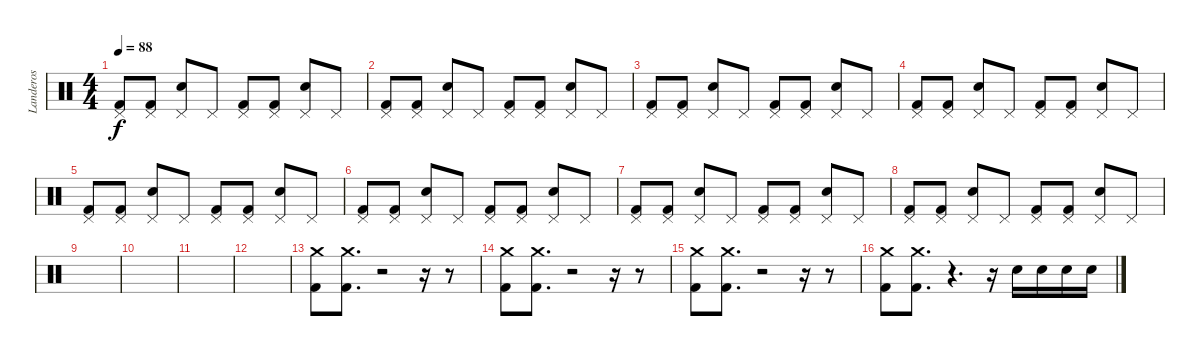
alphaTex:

\track ("Landeros" "Landeros") {instrument percussion}
\staff {score}
\articulation defaults
\ts (4 4)
\tempo 88
\clef neutral
\ks c
("Kick (hit) 2" "Pedal Hi-Hat (hit)").8{dy f} ("Kick (hit) 2" "Pedal Hi-Hat (hit)").8 ("Electric Snare (hit)" "Pedal Hi-Hat (hit)").8 "Pedal Hi-Hat (hit)".8 ("Kick (hit) 2" "Pedal Hi-Hat (hit)").8 ("Kick (hit) 2" "Pedal Hi-Hat (hit)").8 ("Electric Snare (hit)" "Pedal Hi-Hat (hit)").8 "Pedal Hi-Hat (hit)".8 |
("Kick (hit) 2" "Pedal Hi-Hat (hit)").8 ("Kick (hit) 2" "Pedal Hi-Hat (hit)").8 ("Electric Snare (hit)" "Pedal Hi-Hat (hit)").8 "Pedal Hi-Hat (hit)".8 ("Kick (hit) 2" "Pedal Hi-Hat (hit)").8 ("Kick (hit) 2" "Pedal Hi-Hat (hit)").8 ("Electric Snare (hit)" "Pedal Hi-Hat (hit)").8 "Pedal Hi-Hat (hit)".8 |
("Kick (hit) 2" "Pedal Hi-Hat (hit)").8 ("Kick (hit) 2" "Pedal Hi-Hat (hit)").8 ("Electric Snare (hit)" "Pedal Hi-Hat (hit)").8 "Pedal Hi-Hat (hit)".8 ("Kick (hit) 2" "Pedal Hi-Hat (hit)").8 ("Kick (hit) 2" "Pedal Hi-Hat (hit)").8 ("Electric Snare (hit)" "Pedal Hi-Hat (hit)").8 "Pedal Hi-Hat (hit)".8 |
("Kick (hit) 2" "Pedal Hi-Hat (hit)").8 ("Kick (hit) 2" "Pedal Hi-Hat (hit)").8 ("Electric Snare (hit)" "Pedal Hi-Hat (hit)").8 "Pedal Hi-Hat (hit)".8 ("Kick (hit) 2" "Pedal Hi-Hat (hit)").8 ("Kick (hit) 2" "Pedal Hi-Hat (hit)").8 ("Electric Snare (hit)" "Pedal Hi-Hat (hit)").8 "Pedal Hi-Hat (hit)".8 |
("Kick (hit) 2" "Pedal Hi-Hat (hit)").8 ("Kick (hit) 2" "Pedal Hi-Hat (hit)").8 ("Electric Snare (hit)" "Pedal Hi-Hat (hit)").8 "Pedal Hi-Hat (hit)".8 ("Kick (hit) 2" "Pedal Hi-Hat (hit)").8 ("Kick (hit) 2" "Pedal Hi-Hat (hit)").8 ("Electric Snare (hit)" "Pedal Hi-Hat (hit)").8 "Pedal Hi-Hat (hit)".8 |
("Kick (hit) 2" "Pedal Hi-Hat (hit)").8 ("Kick (hit) 2" "Pedal Hi-Hat (hit)").8 ("Electric Snare (hit)" "Pedal Hi-Hat (hit)").8 "Pedal Hi-Hat (hit)".8 ("Kick (hit) 2" "Pedal Hi-Hat (hit)").8 ("Kick (hit) 2" "Pedal Hi-Hat (hit)").8 ("Electric Snare (hit)" "Pedal Hi-Hat (hit)").8 "Pedal Hi-Hat (hit)".8 |
("Kick (hit) 2" "Pedal Hi-Hat (hit)").8 ("Kick (hit) 2" "Pedal Hi-Hat (hit)").8 ("Electric Snare (hit)" "Pedal Hi-Hat (hit)").8 "Pedal Hi-Hat (hit)".8 ("Kick (hit) 2" "Pedal Hi-Hat (hit)").8 ("Kick (hit) 2" "Pedal Hi-Hat (hit)").8 ("Electric Snare (hit)" "Pedal Hi-Hat (hit)").8 "Pedal Hi-Hat (hit)".8 |
("Kick (hit) 2" "Pedal Hi-Hat (hit)").8 ("Kick (hit) 2" "Pedal Hi-Hat (hit)").8 ("Electric Snare (hit)" "Pedal Hi-Hat (hit)").8 "Pedal Hi-Hat (hit)".8 ("Kick (hit) 2" "Pedal Hi-Hat (hit)").8 ("Kick (hit) 2" "Pedal Hi-Hat (hit)").8 ("Electric Snare (hit)" "Pedal Hi-Hat (hit)").8 "Pedal Hi-Hat (hit)".8 |
|
|
|
|
("Kick (hit) 2" "Crash medium (hit)").8 ("Kick (hit) 2" "Crash medium (hit)").8{d} r.2 r.16 r.8 |
("Kick (hit) 2" "Crash medium (hit)").8 ("Kick (hit) 2" "Crash medium (hit)").8{d} r.2 r.16 r.8 |
("Kick (hit) 2" "Crash medium (hit)").8 ("Kick (hit) 2" "Crash medium (hit)").8{d} r.2 r.16 r.8 |
("Kick (hit) 2" "Crash medium (hit)").8 ("Kick (hit) 2" "Crash medium (hit)").8{d} r.4{d} r.16 "Electric Snare (hit)".16 "Electric Snare (hit)".16 "Electric Snare (hit)".16 "Electric Snare (hit)".16
